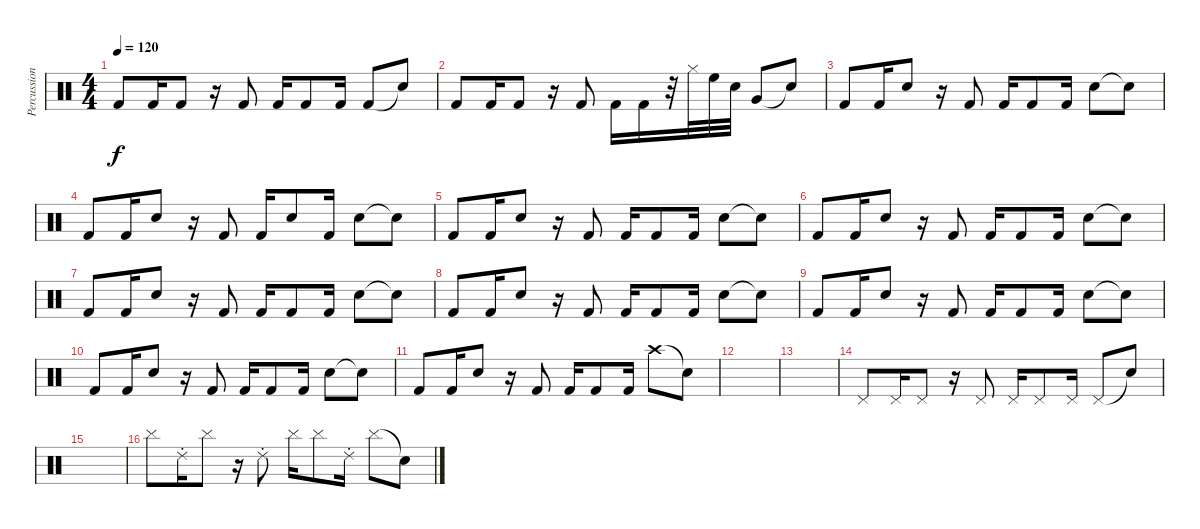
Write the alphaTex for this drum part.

\track ("Percussion" "Percussion") {instrument percussion}
\staff {score}
\articulation defaults
\ts (4 4)
\tempo 120
\clef neutral
\ks c "Kick (hit) 2".8{dy f} "Kick (hit) 2".16 "Kick (hit) 2".8
r.16 "Kick (hit) 2".8 "Kick (hit) 2".16 "Kick (hit) 2".8 "Kick (hit) 2".16 "Kick (hit) 2".8 "Snare (hit)"{t}.8 |
"Kick (hit) 2".8 "Kick (hit) 2".16 "Kick (hit) 2".8 r.16 "Kick (hit) 2".8 "Kick (hit) 2".16 "Kick (hit) 2".16 r.32 "Hi-Hat (closed)".32 "High Floor Tom (hit)".32 "Electric Snare (hit)".32 "Very Low Tom (hit)".8 "Snare (hit)"{t}.8 |
"Kick (hit) 2".8 "Kick (hit) 2".16 "Electric Snare (hit)".8 r.16 "Kick (hit) 2".8 "Kick (hit) 2".16 "Kick (hit) 2".8 "Kick (hit) 2".16 "Electric Snare (hit)".8 "Snare (hit)"{t}.8 |
"Kick (hit) 2".8 "Kick (hit) 2".16 "Electric Snare (hit)".8 r.16 "Kick (hit) 2".8 "Kick (hit) 2".16 "Electric Snare (hit)".8 "Kick (hit) 2".16 "Electric Snare (hit)".8 "Snare (hit)"{t}.8 |
"Kick (hit) 2".8 "Kick (hit) 2".16 "Electric Snare (hit)".8 r.16 "Kick (hit) 2".8 "Kick (hit) 2".16 "Kick (hit) 2".8 "Kick (hit) 2".16 "Electric Snare (hit)".8 "Snare (hit)"{t}.8 |
"Kick (hit) 2".8 "Kick (hit) 2".16 "Electric Snare (hit)".8 r.16 "Kick (hit) 2".8 "Kick (hit) 2".16 "Kick (hit) 2".8 "Kick (hit) 2".16 "Electric Snare (hit)".8 "Snare (hit)"{t}.8 |
"Kick (hit) 2".8 "Kick (hit) 2".16 "Electric Snare (hit)".8 r.16 "Kick (hit) 2".8 "Kick (hit) 2".16 "Kick (hit) 2".8 "Kick (hit) 2".16 "Electric Snare (hit)".8 "Snare (hit)"{t}.8 |
"Kick (hit) 2".8 "Kick (hit) 2".16 "Electric Snare (hit)".8 r.16 "Kick (hit) 2".8 "Kick (hit) 2".16 "Kick (hit) 2".8 "Kick (hit) 2".16 "Electric Snare (hit)".8 "Snare (hit)"{t}.8 |
"Kick (hit) 2".8 "Kick (hit) 2".16 "Electric Snare (hit)".8 r.16 "Kick (hit) 2".8 "Kick (hit) 2".16 "Kick (hit) 2".8 "Kick (hit) 2".16 "Electric Snare (hit)".8 "Snare (hit)"{t}.8 |
"Kick (hit) 2".8 "Kick (hit) 2".16 "Electric Snare (hit)".8 r.16 "Kick (hit) 2".8 "Kick (hit) 2".16 "Kick (hit) 2".8 "Kick (hit) 2".16 "Electric Snare (hit)".8 "Snare (hit)"{t}.8 |
"Kick (hit) 2".8 "Kick (hit) 2".16 "Electric Snare (hit)".8 r.16 "Kick (hit) 2".8 "Kick (hit) 2".16 "Kick (hit) 2".8 "Kick (hit) 2".16 "Crash high (hit)".8 "Snare (hit)"{t}.8 |
|
|
"Pedal Hi-Hat (hit)".8 "Pedal Hi-Hat (hit)".16 "Pedal Hi-Hat (hit)".8 r.16 "Pedal Hi-Hat (hit)".8 "Pedal Hi-Hat (hit)".16 "Pedal Hi-Hat (hit)".8 "Pedal Hi-Hat (hit)".16 "Pedal Hi-Hat (hit)".8 "Snare (hit)"{t}.8 |
|
"Cymbal (hit)".8 "Ride (choke) 2".16 "Cymbal (hit)".8 r.16 "Ride (choke) 2".8 "Cymbal (hit)".16 "Cymbal (hit)".8 "Ride (choke) 2".16 "Cymbal (hit)".8 "Snare (hit)"{t}.8
